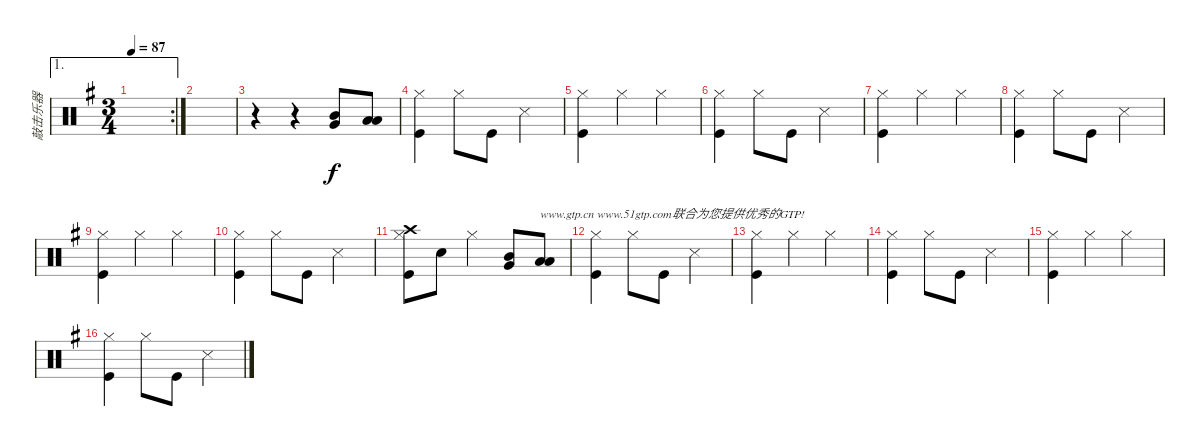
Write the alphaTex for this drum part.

\track ("敲击乐器" "敲击乐器") {instrument percussion}
\staff {score}
\articulation defaults
\ae 1
\rc 2
\ts (3 4)
\tempo 87
\clef neutral
\ks g
|
|
r.4 r.4 ("Very Low Tom (hit)" "Mid Tom (hit)").8 ("Low Tom (hit)" "Low Floor Tom (hit)").8 |
("Hi-Hat (closed)" "Kick (hit)").4 "Hi-Hat (closed)".8 "Kick (hit)".8 "Snare (side stick) 3".4 |
("Hi-Hat (closed)" "Kick (hit)").4 "Hi-Hat (closed)".4 "Hi-Hat (closed)".4 |
("Hi-Hat (closed)" "Kick (hit)").4 "Hi-Hat (closed)".8 "Kick (hit)".8 "Snare (side stick) 3".4 |
("Hi-Hat (closed)" "Kick (hit)").4 "Hi-Hat (closed)".4 "Hi-Hat (closed)".4 |
("Hi-Hat (closed)" "Kick (hit)").4 "Hi-Hat (closed)".8 "Kick (hit)".8 "Snare (side stick) 3".4 |
("Hi-Hat (closed)" "Kick (hit)").4 "Hi-Hat (closed)".4 "Hi-Hat (closed)".4 |
("Hi-Hat (closed)" "Kick (hit)").4 "Hi-Hat (closed)".8 "Kick (hit)".8 "Snare (side stick) 3".4 |
("Hi-Hat (closed)" "Crash high (hit)" "Kick (hit)").8 "Snare (hit) 2".8 "Hi-Hat (closed)".4 ("Very Low Tom (hit)" "Mid Tom (hit)").8 ("Low Tom (hit)" "Low Floor Tom (hit)").8{txt "www.gtp.cn www.51gtp.com联合为您提供优秀的GTP!"} |
("Hi-Hat (closed)" "Kick (hit)").4 "Hi-Hat (closed)".8 "Kick (hit)".8 "Snare (side stick) 3".4 |
("Hi-Hat (closed)" "Kick (hit)").4 "Hi-Hat (closed)".4 "Hi-Hat (closed)".4 |
("Hi-Hat (closed)" "Kick (hit)").4 "Hi-Hat (closed)".8 "Kick (hit)".8 "Snare (side stick) 3".4 |
("Hi-Hat (closed)" "Kick (hit)").4 "Hi-Hat (closed)".4 "Hi-Hat (closed)".4 |
("Hi-Hat (closed)" "Kick (hit)").4 "Hi-Hat (closed)".8 "Kick (hit)".8 "Snare (side stick) 3".4
